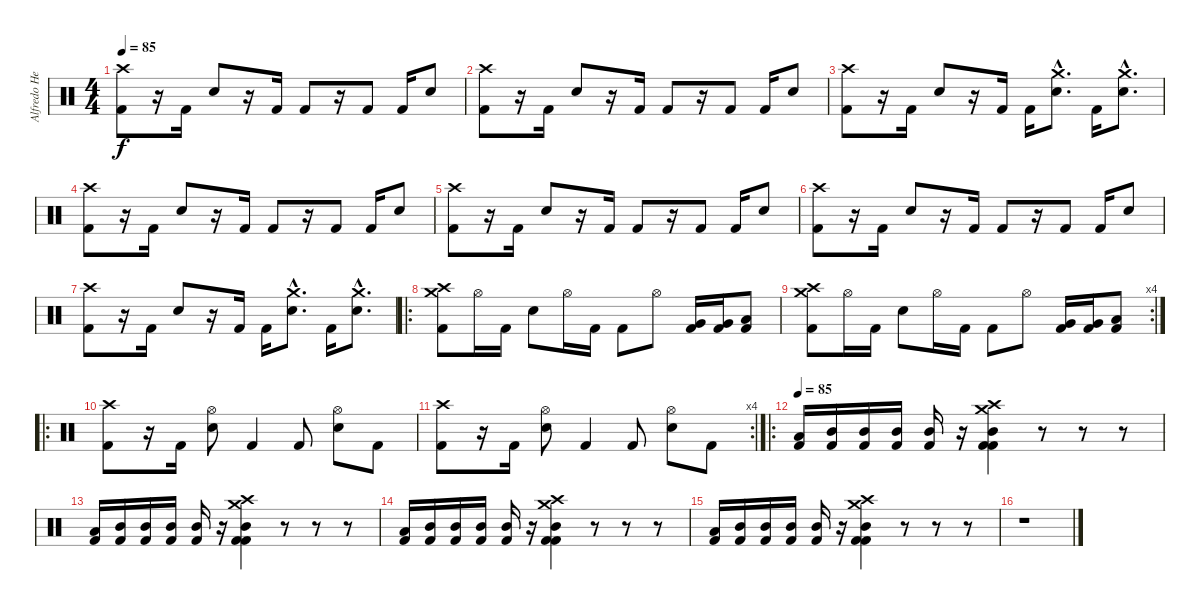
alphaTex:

\track ("Alfredo Hernández" "Alfredo He") {instrument percussion}
\staff {score}
\articulation defaults
\ts (4 4)
\tempo 85
\clef neutral
\ks c
("Crash high (hit)" "Kick (hit) 2").8{dy f} r.16 "Kick (hit) 2".16 "Electric Snare (hit)".8 r.16 "Kick (hit) 2".16 "Kick (hit) 2".8 r.16 "Kick (hit) 2".8 "Kick (hit) 2".16 "Electric Snare (hit)".8 |
("Crash high (hit)" "Kick (hit) 2").8 r.16 "Kick (hit) 2".16 "Electric Snare (hit)".8 r.16 "Kick (hit) 2".16 "Kick (hit) 2".8 r.16 "Kick (hit) 2".8 "Kick (hit) 2".16 "Electric Snare (hit)".8 |
("Crash high (hit)" "Kick (hit) 2").8 r.16 "Kick (hit) 2".16 "Electric Snare (hit)".8 r.16 "Kick (hit) 2".16 "Kick (hit) 2".16 ("Crash medium (hit)"{hac} "Electric Snare (hit)"{hac}).8{d} "Kick (hit) 2".16 ("Crash medium (hit)"{hac} "Electric Snare (hit)"{hac}).8{d} |
("Crash high (hit)" "Kick (hit) 2").8 r.16 "Kick (hit) 2".16 "Electric Snare (hit)".8 r.16 "Kick (hit) 2".16 "Kick (hit) 2".8 r.16 "Kick (hit) 2".8 "Kick (hit) 2".16 "Electric Snare (hit)".8 |
("Crash high (hit)" "Kick (hit) 2").8 r.16 "Kick (hit) 2".16 "Electric Snare (hit)".8 r.16 "Kick (hit) 2".16 "Kick (hit) 2".8 r.16 "Kick (hit) 2".8 "Kick (hit) 2".16 "Electric Snare (hit)".8 |
("Crash high (hit)" "Kick (hit) 2").8 r.16 "Kick (hit) 2".16 "Electric Snare (hit)".8 r.16 "Kick (hit) 2".16 "Kick (hit) 2".8 r.16 "Kick (hit) 2".8 "Kick (hit) 2".16 "Electric Snare (hit)".8 |
("Crash high (hit)" "Kick (hit) 2").8 r.16 "Kick (hit) 2".16 "Electric Snare (hit)".8 r.16 "Kick (hit) 2".16 "Kick (hit) 2".16 ("Crash medium (hit)"{hac} "Electric Snare (hit)"{hac}).8{d} "Kick (hit) 2".16 ("Crash medium (hit)"{hac} "Electric Snare (hit)"{hac}).8{d} |
\ro
("Crash high (hit)" "Crash medium (hit)" "Kick (hit) 2").8 "Hi-Hat (open)".16 "Kick (hit) 2".16 "Electric Snare (hit)".8 "Hi-Hat (open)".16 "Kick (hit) 2".16 "Kick (hit) 2".8 "Hi-Hat (open)".8 ("Very Low Tom (hit)" "Kick (hit) 2").16 ("Very Low Tom (hit)" "Kick (hit) 2").16 ("Low Floor Tom (hit)" "Kick (hit) 2").8 |
\rc 4
("Crash high (hit)" "Crash medium (hit)" "Kick (hit) 2").8 "Hi-Hat (open)".16 "Kick (hit) 2".16 "Electric Snare (hit)".8 "Hi-Hat (open)".16 "Kick (hit) 2".16 "Kick (hit) 2".8 "Hi-Hat (open)".8 ("Very Low Tom (hit)" "Kick (hit) 2").16 ("Very Low Tom (hit)" "Kick (hit) 2").16 ("Low Floor Tom (hit)" "Kick (hit) 2").8 |
\ro
("Crash high (hit)" "Kick (hit) 2").8 r.16 "Kick (hit) 2".16 ("Electric Snare (hit)" "Hi-Hat (open)").8 "Kick (hit) 2".4 "Kick (hit) 2".8 ("Electric Snare (hit)" "Hi-Hat (open)").8 "Kick (hit) 2".8 |
\rc 4
("Crash high (hit)" "Kick (hit) 2").8 r.16 "Kick (hit) 2".16 ("Electric Snare (hit)" "Hi-Hat (open)").8 "Kick (hit) 2".4 "Kick (hit) 2".8 ("Electric Snare (hit)" "Hi-Hat (open)").8 "Kick (hit) 2".8 |
\ro
\tempo 85
("Low Tom (hit)" "Kick (hit) 2").16 ("Mid Tom (hit)" "Kick (hit) 2").16 ("Mid Tom (hit)" "Kick (hit) 2").16 ("Mid Tom (hit)" "Kick (hit) 2").16 ("Mid Tom (hit)" "Kick (hit) 2").16 r.16 ("Crash medium (hit)" "Crash high (hit)" "Mid Tom (hit)" "Kick (hit) 2" "Kick (hit) 2").4 r.8 r.8 r.8 |
("Low Tom (hit)" "Kick (hit) 2").16 ("Mid Tom (hit)" "Kick (hit) 2").16 ("Mid Tom (hit)" "Kick (hit) 2").16 ("Mid Tom (hit)" "Kick (hit) 2").16 ("Mid Tom (hit)" "Kick (hit) 2").16 r.16 ("Crash medium (hit)" "Crash high (hit)" "Mid Tom (hit)" "Kick (hit) 2" "Kick (hit) 2").4 r.8 r.8 r.8 |
("Low Tom (hit)" "Kick (hit) 2").16 ("Mid Tom (hit)" "Kick (hit) 2").16 ("Mid Tom (hit)" "Kick (hit) 2").16 ("Mid Tom (hit)" "Kick (hit) 2").16 ("Mid Tom (hit)" "Kick (hit) 2").16 r.16 ("Crash medium (hit)" "Crash high (hit)" "Mid Tom (hit)" "Kick (hit) 2" "Kick (hit) 2").4 r.8 r.8 r.8 |
("Low Tom (hit)" "Kick (hit) 2").16 ("Mid Tom (hit)" "Kick (hit) 2").16 ("Mid Tom (hit)" "Kick (hit) 2").16 ("Mid Tom (hit)" "Kick (hit) 2").16 ("Mid Tom (hit)" "Kick (hit) 2").16 r.16 ("Crash medium (hit)" "Crash high (hit)" "Mid Tom (hit)" "Kick (hit) 2" "Kick (hit) 2").4 r.8 r.8 r.8 |
r.1
